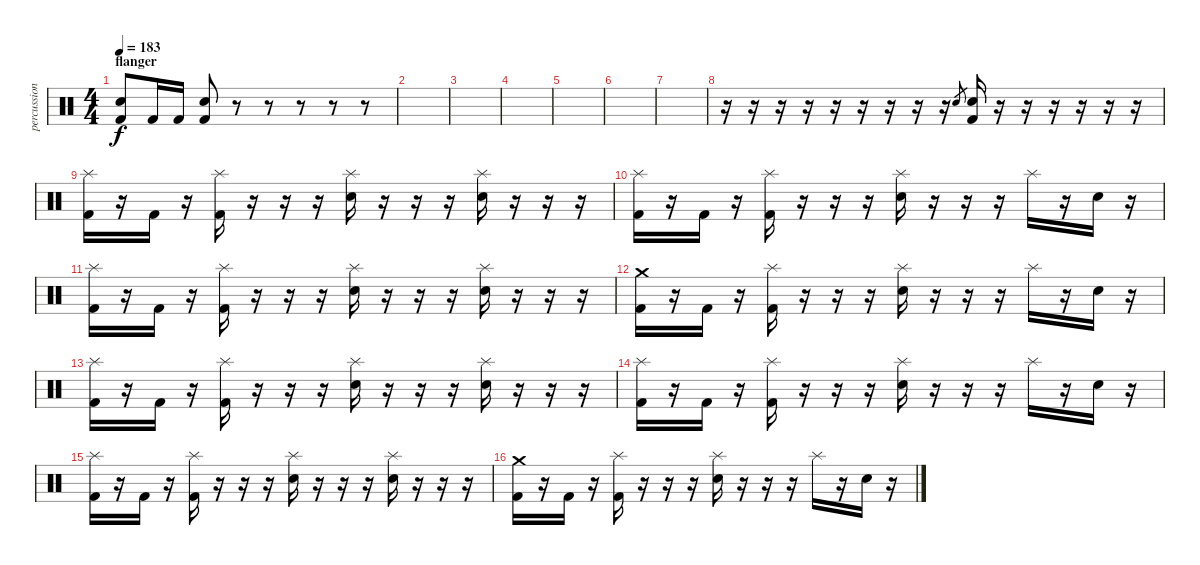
\track ("percussion" "percussion") {instrument percussion}
\staff {score}
\articulation defaults
\ts (4 4)
\section ("" "flanger")
\tempo 183
\clef neutral
\ks c
("Kick (hit) 2" "Electric Snare (hit)").8{dy f} "Kick (hit) 2".16 "Kick (hit) 2".16 ("Kick (hit) 2" "Electric Snare (hit)").8 r.8 r.8 r.8 r.8 r.8 |
|
|
|
|
|
|
r.16 r.16 r.16 r.16 r.16 r.16 r.16 r.16 r.16 "Electric Snare (hit)".8{gr} ("Kick (hit) 2" "Electric Snare (hit)").16 r.16 r.16 r.16 r.16 r.16 r.16 |
("Splash (hit)" "Kick (hit) 2").16 r.16 "Kick (hit) 2".16 r.16 ("Splash (hit)" "Kick (hit) 2").16 r.16 r.16 r.16 ("Splash (hit)" "Electric Snare (hit)").16 r.16 r.16 r.16 ("Splash (hit)" "Electric Snare (hit)").16 r.16 r.16 r.16 |
("Splash (hit)" "Kick (hit) 2").16 r.16 "Kick (hit) 2".16 r.16 ("Splash (hit)" "Kick (hit) 2").16 r.16 r.16 r.16 ("Splash (hit)" "Electric Snare (hit)").16 r.16 r.16 r.16 "Splash (hit)".16 r.16 "Electric Snare (hit)".16 r.16 |
("Splash (hit)" "Kick (hit) 2").16 r.16 "Kick (hit) 2".16 r.16 ("Splash (hit)" "Kick (hit) 2").16 r.16 r.16 r.16 ("Splash (hit)" "Electric Snare (hit)").16 r.16 r.16 r.16 ("Splash (hit)" "Electric Snare (hit)").16 r.16 r.16 r.16 |
("Crash medium (hit)" "Kick (hit) 2").16 r.16 "Kick (hit) 2".16 r.16 ("Splash (hit)" "Kick (hit) 2").16 r.16 r.16 r.16 ("Splash (hit)" "Electric Snare (hit)").16 r.16 r.16 r.16 "Splash (hit)".16 r.16 "Electric Snare (hit)".16 r.16 |
("Splash (hit)" "Kick (hit) 2").16 r.16 "Kick (hit) 2".16 r.16 ("Splash (hit)" "Kick (hit) 2").16 r.16 r.16 r.16 ("Splash (hit)" "Electric Snare (hit)").16 r.16 r.16 r.16 ("Splash (hit)" "Electric Snare (hit)").16 r.16 r.16 r.16 |
("Splash (hit)" "Kick (hit) 2").16 r.16 "Kick (hit) 2".16 r.16 ("Splash (hit)" "Kick (hit) 2").16 r.16 r.16 r.16 ("Splash (hit)" "Electric Snare (hit)").16 r.16 r.16 r.16 "Splash (hit)".16 r.16 "Electric Snare (hit)".16 r.16 |
("Splash (hit)" "Kick (hit) 2").16 r.16 "Kick (hit) 2".16 r.16 ("Splash (hit)" "Kick (hit) 2").16 r.16 r.16 r.16 ("Splash (hit)" "Electric Snare (hit)").16 r.16 r.16 r.16 ("Splash (hit)" "Electric Snare (hit)").16 r.16 r.16 r.16 |
("Crash medium (hit)" "Kick (hit) 2").16 r.16 "Kick (hit) 2".16 r.16 ("Splash (hit)" "Kick (hit) 2").16 r.16 r.16 r.16 ("Splash (hit)" "Electric Snare (hit)").16 r.16 r.16 r.16 "Splash (hit)".16 r.16 "Electric Snare (hit)".16 r.16
